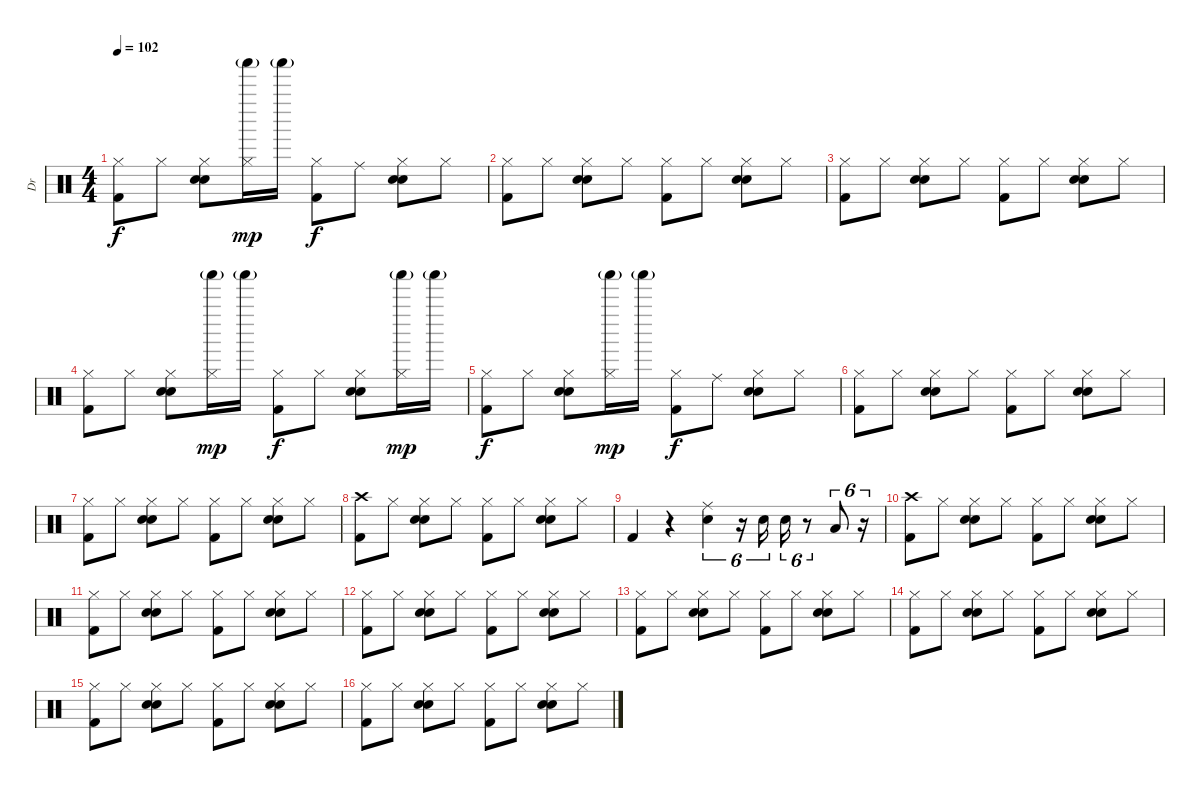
\track ("Dr" "Dr") {instrument percussion}
\staff {score}
\articulation defaults
\ts (4 4)
\tempo 102
\clef neutral
\ks c
("Hi-Hat (closed)" "Kick (hit) 2").8{dy f} "Hi-Hat (closed)".8 ("Hi-Hat (closed)" "Electric Snare (hit)" "Hand Clap (hit)").8 ("Hi-Hat (closed)" "Shaker (hit)"{g}).16{dy mp} "Shaker (hit)"{g}.16 ("Hi-Hat (closed)" "Kick (hit) 2").8{dy f} "Ride (middle)".8 ("Hi-Hat (closed)" "Electric Snare (hit)" "Hand Clap (hit)").8 "Hi-Hat (closed)".8 |
("Hi-Hat (closed)" "Kick (hit) 2").8 "Hi-Hat (closed)".8 ("Hi-Hat (closed)" "Electric Snare (hit)" "Hand Clap (hit)").8 "Hi-Hat (closed)".8 ("Hi-Hat (closed)" "Kick (hit) 2").8 "Hi-Hat (closed)".8 ("Hi-Hat (closed)" "Electric Snare (hit)" "Hand Clap (hit)").8 "Hi-Hat (closed)".8 |
("Hi-Hat (closed)" "Kick (hit) 2").8 "Hi-Hat (closed)".8 ("Hi-Hat (closed)" "Electric Snare (hit)" "Hand Clap (hit)").8 "Hi-Hat (closed)".8 ("Hi-Hat (closed)" "Kick (hit) 2").8 "Hi-Hat (closed)".8 ("Hi-Hat (closed)" "Electric Snare (hit)" "Hand Clap (hit)").8 "Hi-Hat (closed)".8 |
("Hi-Hat (closed)" "Kick (hit) 2").8 "Hi-Hat (closed)".8 ("Hi-Hat (closed)" "Electric Snare (hit)" "Hand Clap (hit)").8 ("Hi-Hat (closed)" "Shaker (hit)"{g}).16{dy mp} "Shaker (hit)"{g}.16 ("Hi-Hat (closed)" "Kick (hit) 2").8{dy f} "Hi-Hat (closed)".8 ("Hi-Hat (closed)" "Electric Snare (hit)" "Hand Clap (hit)").8 ("Hi-Hat (closed)" "Shaker (hit)"{g}).16{dy mp} "Shaker (hit)"{g}.16 |
("Hi-Hat (closed)" "Kick (hit) 2").8{dy f} "Hi-Hat (closed)".8 ("Hi-Hat (closed)" "Electric Snare (hit)" "Hand Clap (hit)").8 ("Hi-Hat (closed)" "Shaker (hit)"{g}).16{dy mp} "Shaker (hit)"{g}.16 ("Hi-Hat (closed)" "Kick (hit) 2").8{dy f} "Ride (middle)".8 ("Hi-Hat (closed)" "Electric Snare (hit)" "Hand Clap (hit)").8 "Hi-Hat (closed)".8 |
("Hi-Hat (closed)" "Kick (hit) 2").8 "Hi-Hat (closed)".8 ("Hi-Hat (closed)" "Electric Snare (hit)" "Hand Clap (hit)").8 "Hi-Hat (closed)".8 ("Hi-Hat (closed)" "Kick (hit) 2").8 "Hi-Hat (closed)".8 ("Hi-Hat (closed)" "Electric Snare (hit)" "Hand Clap (hit)").8 "Hi-Hat (closed)".8 |
("Hi-Hat (closed)" "Kick (hit) 2").8 "Hi-Hat (closed)".8 ("Hi-Hat (closed)" "Electric Snare (hit)" "Hand Clap (hit)").8 "Hi-Hat (closed)".8 ("Hi-Hat (closed)" "Kick (hit) 2").8 "Hi-Hat (closed)".8 ("Hi-Hat (closed)" "Electric Snare (hit)" "Hand Clap (hit)").8 "Hi-Hat (closed)".8 |
("Crash high (hit)" "Kick (hit) 2").8 "Hi-Hat (closed)".8 ("Hi-Hat (closed)" "Electric Snare (hit)" "Hand Clap (hit)").8 "Hi-Hat (closed)".8 ("Hi-Hat (closed)" "Kick (hit) 2").8 "Hi-Hat (closed)".8 ("Hi-Hat (closed)" "Electric Snare (hit)" "Hand Clap (hit)").8 "Hi-Hat (closed)".8 |
"Kick (hit) 2".4 r.4 ("Ride (middle)" "Electric Snare (hit)").4{tu (6 4)} r.16{tu (6 4)} "Electric Snare (hit)".16{tu (6 4)} "Electric Snare (hit)".16{tu (6 4)} r.8{tu (6 4)} "Low Tom (hit)".8{tu (6 4)} r.16{tu (6 4)} |
("Crash high (hit)" "Kick (hit) 2").8 "Hi-Hat (closed)".8 ("Hi-Hat (closed)" "Electric Snare (hit)" "Hand Clap (hit)").8 "Hi-Hat (closed)".8 ("Hi-Hat (closed)" "Kick (hit) 2").8 "Hi-Hat (closed)".8 ("Hi-Hat (closed)" "Electric Snare (hit)" "Hand Clap (hit)").8 "Hi-Hat (closed)".8 |
("Hi-Hat (closed)" "Kick (hit) 2").8 "Hi-Hat (closed)".8 ("Hi-Hat (closed)" "Electric Snare (hit)" "Hand Clap (hit)").8 "Hi-Hat (closed)".8 ("Hi-Hat (closed)" "Kick (hit) 2").8 "Hi-Hat (closed)".8 ("Hi-Hat (closed)" "Electric Snare (hit)" "Hand Clap (hit)").8 "Hi-Hat (closed)".8 |
("Hi-Hat (closed)" "Kick (hit) 2").8 "Hi-Hat (closed)".8 ("Hi-Hat (closed)" "Electric Snare (hit)" "Hand Clap (hit)").8 "Hi-Hat (closed)".8 ("Hi-Hat (closed)" "Kick (hit) 2").8 "Hi-Hat (closed)".8 ("Hi-Hat (closed)" "Electric Snare (hit)" "Hand Clap (hit)").8 "Hi-Hat (closed)".8 |
("Hi-Hat (closed)" "Kick (hit) 2").8 "Hi-Hat (closed)".8 ("Hi-Hat (closed)" "Electric Snare (hit)" "Hand Clap (hit)").8 "Hi-Hat (closed)".8 ("Hi-Hat (closed)" "Kick (hit) 2").8 "Hi-Hat (closed)".8 ("Hi-Hat (closed)" "Electric Snare (hit)" "Hand Clap (hit)").8 "Hi-Hat (closed)".8 |
("Hi-Hat (closed)" "Kick (hit) 2").8 "Hi-Hat (closed)".8 ("Hi-Hat (closed)" "Electric Snare (hit)" "Hand Clap (hit)").8 "Hi-Hat (closed)".8 ("Hi-Hat (closed)" "Kick (hit) 2").8 "Hi-Hat (closed)".8 ("Hi-Hat (closed)" "Electric Snare (hit)" "Hand Clap (hit)").8 "Hi-Hat (closed)".8 |
("Hi-Hat (closed)" "Kick (hit) 2").8 "Hi-Hat (closed)".8 ("Hi-Hat (closed)" "Electric Snare (hit)" "Hand Clap (hit)").8 "Hi-Hat (closed)".8 ("Hi-Hat (closed)" "Kick (hit) 2").8 "Hi-Hat (closed)".8 ("Hi-Hat (closed)" "Electric Snare (hit)" "Hand Clap (hit)").8 "Hi-Hat (closed)".8 |
("Hi-Hat (closed)" "Kick (hit) 2").8 "Hi-Hat (closed)".8 ("Hi-Hat (closed)" "Electric Snare (hit)" "Hand Clap (hit)").8 "Hi-Hat (closed)".8 ("Hi-Hat (closed)" "Kick (hit) 2").8 "Hi-Hat (closed)".8 ("Hi-Hat (closed)" "Electric Snare (hit)" "Hand Clap (hit)").8 "Hi-Hat (closed)".8
